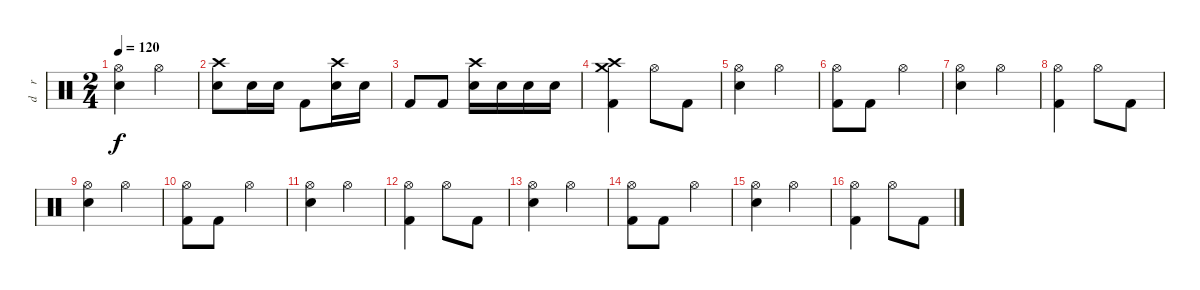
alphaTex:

\track ("d    r    u  m  s" "d    r    ") {instrument percussion}
\staff {score}
\articulation defaults
\ts (2 4)
\tempo 120
\clef neutral
\ks c
("Hi-Hat (open)" "Snare (hit) 2").4{dy f} "Hi-Hat (open)".4 |
("Crash high (hit)" "Snare (hit) 2").8 "Snare (hit) 2".16 "Snare (hit) 2".16 "Kick (hit) 2".8 ("Crash high (hit)" "Snare (hit) 2").16 "Snare (hit) 2".16 |
"Kick (hit) 2".8 "Kick (hit) 2".8 ("Crash high (hit)" "Snare (hit) 2").16 "Snare (hit) 2".16 "Snare (hit) 2".16 "Snare (hit) 2".16 |
("Crash high (hit)" "Crash medium (hit)" "Kick (hit) 2").4 "Hi-Hat (open)".8 "Kick (hit) 2".8 |
("Hi-Hat (open)" "Snare (hit) 2").4 "Hi-Hat (open)".4 |
("Hi-Hat (open)" "Kick (hit) 2").8 "Kick (hit) 2".8 "Hi-Hat (open)".4 |
("Hi-Hat (open)" "Snare (hit) 2").4 "Hi-Hat (open)".4 |
("Hi-Hat (open)" "Kick (hit) 2").4 "Hi-Hat (open)".8 "Kick (hit) 2".8 |
("Hi-Hat (open)" "Snare (hit) 2").4 "Hi-Hat (open)".4 |
("Hi-Hat (open)" "Kick (hit) 2").8 "Kick (hit) 2".8 "Hi-Hat (open)".4 |
("Hi-Hat (open)" "Snare (hit) 2").4 "Hi-Hat (open)".4 |
("Hi-Hat (open)" "Kick (hit) 2").4 "Hi-Hat (open)".8 "Kick (hit) 2".8 |
("Hi-Hat (open)" "Snare (hit) 2").4 "Hi-Hat (open)".4 |
("Hi-Hat (open)" "Kick (hit) 2").8 "Kick (hit) 2".8 "Hi-Hat (open)".4 |
("Hi-Hat (open)" "Snare (hit) 2").4 "Hi-Hat (open)".4 |
("Hi-Hat (open)" "Kick (hit) 2").4 "Hi-Hat (open)".8 "Kick (hit) 2".8
